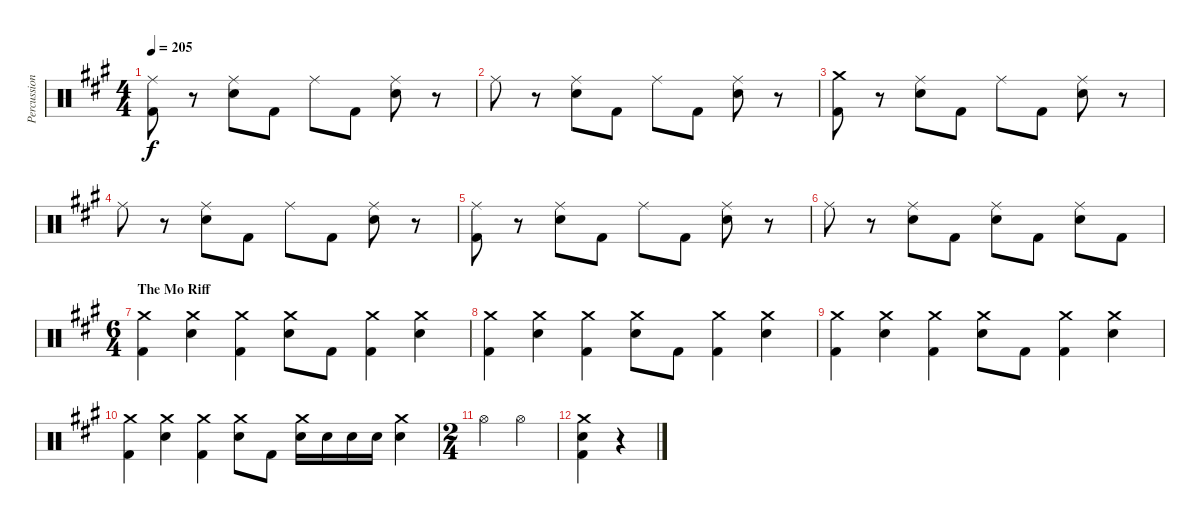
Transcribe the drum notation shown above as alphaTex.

\track ("Percussion" "Percussion") {instrument percussion}
\staff {score}
\articulation defaults
\ts (4 4)
\tempo 205
\clef neutral
\ks a
("Ride (middle)" "Kick (hit) 2").8{dy f} r.8 ("Ride (middle)" "Snare (hit) 2").8 "Kick (hit) 2".8 "Ride (middle)".8 "Kick (hit) 2".8 ("Ride (middle)" "Snare (hit) 2").8 r.8 |
"Ride (middle)".8 r.8 ("Ride (middle)" "Snare (hit) 2").8 "Kick (hit) 2".8 "Ride (middle)".8 "Kick (hit) 2".8 ("Ride (middle)" "Snare (hit) 2").8 r.8 |
("Crash medium (hit)" "Kick (hit) 2").8 r.8 ("Ride (middle)" "Snare (hit) 2").8 "Kick (hit) 2".8 "Ride (middle)".8 "Kick (hit) 2".8 ("Ride (middle)" "Snare (hit) 2").8 r.8 |
"Ride (middle)".8 r.8 ("Ride (middle)" "Snare (hit) 2").8 "Kick (hit) 2".8 "Ride (middle)".8 "Kick (hit) 2".8 ("Ride (middle)" "Snare (hit) 2").8 r.8 |
("Ride (middle)" "Kick (hit) 2").8 r.8 ("Ride (middle)" "Snare (hit) 2").8 "Kick (hit) 2".8 "Ride (middle)".8 "Kick (hit) 2".8 ("Ride (middle)" "Snare (hit) 2").8 r.8 |
"Ride (middle)".8 r.8 ("Ride (middle)" "Snare (hit) 2").8 "Kick (hit) 2".8 ("Ride (middle)" "Snare (hit) 2").8 "Kick (hit) 2".8 ("Ride (middle)" "Snare (hit) 2").8 "Kick (hit) 2".8 |
\ts (6 4)
\section ("" "The Mo Riff")
("Crash medium (hit)" "Kick (hit) 2").4 ("Crash medium (hit)" "Snare (hit) 2").4 ("Crash medium (hit)" "Kick (hit) 2").4 ("Crash medium (hit)" "Snare (hit) 2").8 "Kick (hit) 2".8 ("Crash medium (hit)" "Kick (hit) 2").4 ("Crash medium (hit)" "Snare (hit) 2").4 |
("Crash medium (hit)" "Kick (hit) 2").4 ("Crash medium (hit)" "Snare (hit) 2").4 ("Crash medium (hit)" "Kick (hit) 2").4 ("Crash medium (hit)" "Snare (hit) 2").8 "Kick (hit) 2".8 ("Crash medium (hit)" "Kick (hit) 2").4 ("Crash medium (hit)" "Snare (hit) 2").4 |
("Crash medium (hit)" "Kick (hit) 2").4 ("Crash medium (hit)" "Snare (hit) 2").4 ("Crash medium (hit)" "Kick (hit) 2").4 ("Crash medium (hit)" "Snare (hit) 2").8 "Kick (hit) 2".8 ("Crash medium (hit)" "Kick (hit) 2").4 ("Crash medium (hit)" "Snare (hit) 2").4 |
("Crash medium (hit)" "Kick (hit) 2").4 ("Crash medium (hit)" "Snare (hit) 2").4 ("Crash medium (hit)" "Kick (hit) 2").4 ("Crash medium (hit)" "Snare (hit) 2").8 "Kick (hit) 2".8 ("Crash medium (hit)" "Snare (hit) 2").16 "Snare (hit) 2".16 "Snare (hit) 2".16 "Snare (hit) 2".16 ("Crash medium (hit)" "Snare (hit) 2").4 |
\ts (2 4)
"Hi-Hat (open)".4 "Hi-Hat (open)".4 |
("Crash medium (hit)" "Snare (hit) 2" "Kick (hit) 2").4 r.4
